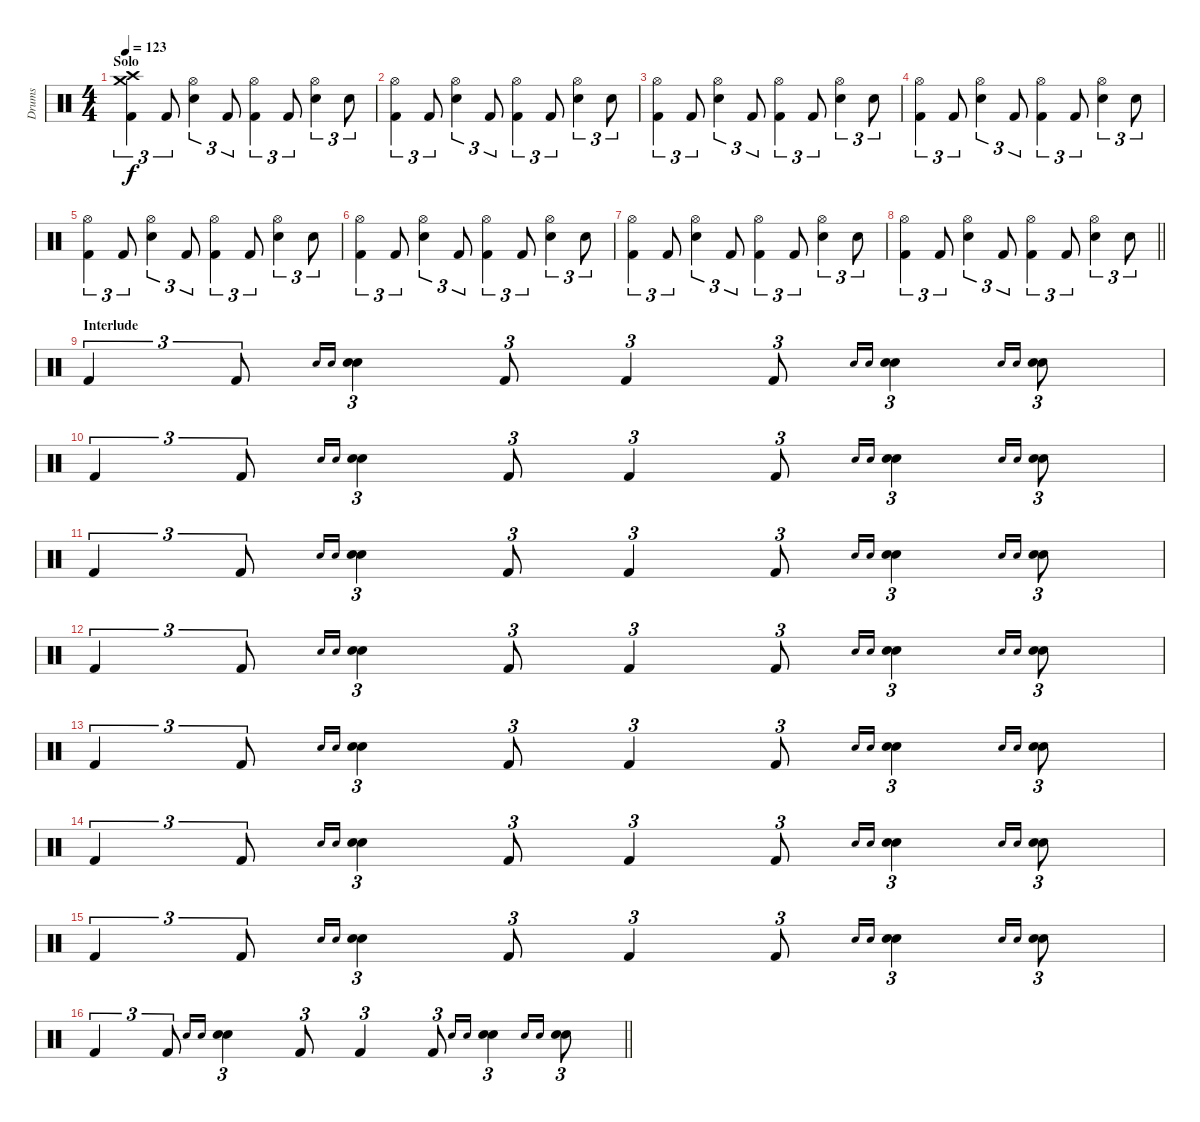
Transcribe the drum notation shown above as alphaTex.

\track ("Drums" "Drums") {instrument percussion}
\staff {score}
\articulation defaults
\ts (4 4)
\section ("" "Solo")
\tempo 123
\clef neutral
\ks c
("Crash high (hit)" "Crash medium (hit)" "Kick (hit) 2").4{tu (3 2) dy f} "Kick (hit) 2".8{tu (3 2)} ("Hi-Hat (open)" "Snare (hit) 2").4{tu (3 2)} "Kick (hit) 2".8{tu (3 2)} ("Hi-Hat (open)" "Kick (hit) 2").4{tu (3 2)} "Kick (hit) 2".8{tu (3 2)} ("Hi-Hat (open)" "Snare (hit) 2").4{tu (3 2)} "Snare (hit) 2".8{tu (3 2)} |
("Hi-Hat (open)" "Kick (hit) 2").4{tu (3 2)} "Kick (hit) 2".8{tu (3 2)} ("Hi-Hat (open)" "Snare (hit) 2").4{tu (3 2)} "Kick (hit) 2".8{tu (3 2)} ("Hi-Hat (open)" "Kick (hit) 2").4{tu (3 2)} "Kick (hit) 2".8{tu (3 2)} ("Hi-Hat (open)" "Snare (hit) 2").4{tu (3 2)} "Snare (hit) 2".8{tu (3 2)} |
("Hi-Hat (open)" "Kick (hit) 2").4{tu (3 2)} "Kick (hit) 2".8{tu (3 2)} ("Hi-Hat (open)" "Snare (hit) 2").4{tu (3 2)} "Kick (hit) 2".8{tu (3 2)} ("Hi-Hat (open)" "Kick (hit) 2").4{tu (3 2)} "Kick (hit) 2".8{tu (3 2)} ("Hi-Hat (open)" "Snare (hit) 2").4{tu (3 2)} "Snare (hit) 2".8{tu (3 2)} |
("Hi-Hat (open)" "Kick (hit) 2").4{tu (3 2)} "Kick (hit) 2".8{tu (3 2)} ("Hi-Hat (open)" "Snare (hit) 2").4{tu (3 2)} "Kick (hit) 2".8{tu (3 2)} ("Hi-Hat (open)" "Kick (hit) 2").4{tu (3 2)} "Kick (hit) 2".8{tu (3 2)} ("Hi-Hat (open)" "Snare (hit) 2").4{tu (3 2)} "Snare (hit) 2".8{tu (3 2)} |
("Hi-Hat (open)" "Kick (hit) 2").4{tu (3 2)} "Kick (hit) 2".8{tu (3 2)} ("Hi-Hat (open)" "Snare (hit) 2").4{tu (3 2)} "Kick (hit) 2".8{tu (3 2)} ("Hi-Hat (open)" "Kick (hit) 2").4{tu (3 2)} "Kick (hit) 2".8{tu (3 2)} ("Hi-Hat (open)" "Snare (hit) 2").4{tu (3 2)} "Snare (hit) 2".8{tu (3 2)} |
("Hi-Hat (open)" "Kick (hit) 2").4{tu (3 2)} "Kick (hit) 2".8{tu (3 2)} ("Hi-Hat (open)" "Snare (hit) 2").4{tu (3 2)} "Kick (hit) 2".8{tu (3 2)} ("Hi-Hat (open)" "Kick (hit) 2").4{tu (3 2)} "Kick (hit) 2".8{tu (3 2)} ("Hi-Hat (open)" "Snare (hit) 2").4{tu (3 2)} "Snare (hit) 2".8{tu (3 2)} |
("Hi-Hat (open)" "Kick (hit) 2").4{tu (3 2)} "Kick (hit) 2".8{tu (3 2)} ("Hi-Hat (open)" "Snare (hit) 2").4{tu (3 2)} "Kick (hit) 2".8{tu (3 2)} ("Hi-Hat (open)" "Kick (hit) 2").4{tu (3 2)} "Kick (hit) 2".8{tu (3 2)} ("Hi-Hat (open)" "Snare (hit) 2").4{tu (3 2)} "Snare (hit) 2".8{tu (3 2)} |
\barLineRight lightlight
("Hi-Hat (open)" "Kick (hit) 2").4{tu (3 2)} "Kick (hit) 2".8{tu (3 2)} ("Hi-Hat (open)" "Snare (hit) 2").4{tu (3 2)} "Kick (hit) 2".8{tu (3 2)} ("Hi-Hat (open)" "Kick (hit) 2").4{tu (3 2)} "Kick (hit) 2".8{tu (3 2)} ("Hi-Hat (open)" "Snare (hit) 2").4{tu (3 2)} "Snare (hit) 2".8{tu (3 2)} |
\section ("" "Interlude")
"Kick (hit) 2".4{tu (3 2)} "Kick (hit) 2".8{tu (3 2)} "Snare (hit) 2".16{gr onbeat} "Snare (hit) 2".16{gr onbeat} ("Snare (hit) 2" "Snare (hit) 2").4{tu (3 2)} "Kick (hit) 2".8{tu (3 2)} "Kick (hit) 2".4{tu (3 2)} "Kick (hit) 2".8{tu (3 2)} "Snare (hit) 2".16{gr onbeat} "Snare (hit) 2".16{gr onbeat} ("Snare (hit) 2" "Snare (hit) 2").4{tu (3 2)} "Snare (hit) 2".16{gr onbeat} "Snare (hit) 2".16{gr onbeat} ("Snare (hit) 2" "Snare (hit) 2").8{tu (3 2)} |
"Kick (hit) 2".4{tu (3 2)} "Kick (hit) 2".8{tu (3 2)} "Snare (hit) 2".16{gr onbeat} "Snare (hit) 2".16{gr onbeat} ("Snare (hit) 2" "Snare (hit) 2").4{tu (3 2)} "Kick (hit) 2".8{tu (3 2)} "Kick (hit) 2".4{tu (3 2)} "Kick (hit) 2".8{tu (3 2)} "Snare (hit) 2".16{gr onbeat} "Snare (hit) 2".16{gr onbeat} ("Snare (hit) 2" "Snare (hit) 2").4{tu (3 2)} "Snare (hit) 2".16{gr onbeat} "Snare (hit) 2".16{gr onbeat} ("Snare (hit) 2" "Snare (hit) 2").8{tu (3 2)} |
"Kick (hit) 2".4{tu (3 2)} "Kick (hit) 2".8{tu (3 2)} "Snare (hit) 2".16{gr onbeat} "Snare (hit) 2".16{gr onbeat} ("Snare (hit) 2" "Snare (hit) 2").4{tu (3 2)} "Kick (hit) 2".8{tu (3 2)} "Kick (hit) 2".4{tu (3 2)} "Kick (hit) 2".8{tu (3 2)} "Snare (hit) 2".16{gr onbeat} "Snare (hit) 2".16{gr onbeat} ("Snare (hit) 2" "Snare (hit) 2").4{tu (3 2)} "Snare (hit) 2".16{gr onbeat} "Snare (hit) 2".16{gr onbeat} ("Snare (hit) 2" "Snare (hit) 2").8{tu (3 2)} |
"Kick (hit) 2".4{tu (3 2)} "Kick (hit) 2".8{tu (3 2)} "Snare (hit) 2".16{gr onbeat} "Snare (hit) 2".16{gr onbeat} ("Snare (hit) 2" "Snare (hit) 2").4{tu (3 2)} "Kick (hit) 2".8{tu (3 2)} "Kick (hit) 2".4{tu (3 2)} "Kick (hit) 2".8{tu (3 2)} "Snare (hit) 2".16{gr onbeat} "Snare (hit) 2".16{gr onbeat} ("Snare (hit) 2" "Snare (hit) 2").4{tu (3 2)} "Snare (hit) 2".16{gr onbeat} "Snare (hit) 2".16{gr onbeat} ("Snare (hit) 2" "Snare (hit) 2").8{tu (3 2)} |
"Kick (hit) 2".4{tu (3 2)} "Kick (hit) 2".8{tu (3 2)} "Snare (hit) 2".16{gr onbeat} "Snare (hit) 2".16{gr onbeat} ("Snare (hit) 2" "Snare (hit) 2").4{tu (3 2)} "Kick (hit) 2".8{tu (3 2)} "Kick (hit) 2".4{tu (3 2)} "Kick (hit) 2".8{tu (3 2)} "Snare (hit) 2".16{gr onbeat} "Snare (hit) 2".16{gr onbeat} ("Snare (hit) 2" "Snare (hit) 2").4{tu (3 2)} "Snare (hit) 2".16{gr onbeat} "Snare (hit) 2".16{gr onbeat} ("Snare (hit) 2" "Snare (hit) 2").8{tu (3 2)} |
"Kick (hit) 2".4{tu (3 2)} "Kick (hit) 2".8{tu (3 2)} "Snare (hit) 2".16{gr onbeat} "Snare (hit) 2".16{gr onbeat} ("Snare (hit) 2" "Snare (hit) 2").4{tu (3 2)} "Kick (hit) 2".8{tu (3 2)} "Kick (hit) 2".4{tu (3 2)} "Kick (hit) 2".8{tu (3 2)} "Snare (hit) 2".16{gr onbeat} "Snare (hit) 2".16{gr onbeat} ("Snare (hit) 2" "Snare (hit) 2").4{tu (3 2)} "Snare (hit) 2".16{gr onbeat} "Snare (hit) 2".16{gr onbeat} ("Snare (hit) 2" "Snare (hit) 2").8{tu (3 2)} |
"Kick (hit) 2".4{tu (3 2)} "Kick (hit) 2".8{tu (3 2)} "Snare (hit) 2".16{gr onbeat} "Snare (hit) 2".16{gr onbeat} ("Snare (hit) 2" "Snare (hit) 2").4{tu (3 2)} "Kick (hit) 2".8{tu (3 2)} "Kick (hit) 2".4{tu (3 2)} "Kick (hit) 2".8{tu (3 2)} "Snare (hit) 2".16{gr onbeat} "Snare (hit) 2".16{gr onbeat} ("Snare (hit) 2" "Snare (hit) 2").4{tu (3 2)} "Snare (hit) 2".16{gr onbeat} "Snare (hit) 2".16{gr onbeat} ("Snare (hit) 2" "Snare (hit) 2").8{tu (3 2)} |
\barLineRight lightlight "Kick (hit) 2".4{tu (3 2)} "Kick (hit) 2".8{tu (3 2)} "Snare (hit) 2".16{gr onbeat} "Snare (hit) 2".16{gr onbeat}
("Snare (hit) 2" "Snare (hit) 2").4{tu (3 2)} "Kick (hit) 2".8{tu (3 2)} "Kick (hit) 2".4{tu (3 2)} "Kick (hit) 2".8{tu (3 2)} "Snare (hit) 2".16{gr onbeat} "Snare (hit) 2".16{gr onbeat} ("Snare (hit) 2" "Snare (hit) 2").4{tu (3 2)} "Snare (hit) 2".16{gr onbeat} "Snare (hit) 2".16{gr onbeat} ("Snare (hit) 2" "Snare (hit) 2").8{tu (3 2)}
